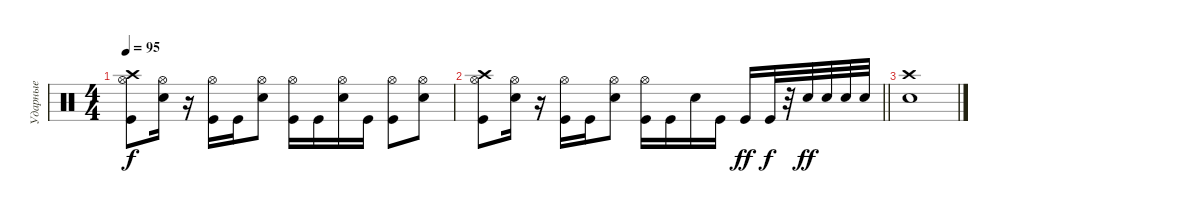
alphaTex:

\track ("Ударные" "Ударные") {instrument percussion}
\staff {score}
\articulation defaults
\ts (4 4)
\tempo 95
\clef neutral
\ks c
("Kick (hit)" "Hi-Hat (open)" "Crash high (hit)").8{dy f} ("Hi-Hat (open)" "Snare (hit) 2").16 r.16 ("Hi-Hat (open)" "Kick (hit)").16 "Kick (hit)".16 ("Hi-Hat (open)" "Snare (hit) 2").8 ("Hi-Hat (open)" "Kick (hit)").16 "Kick (hit)".16 ("Hi-Hat (open)" "Snare (hit) 2").16 "Kick (hit)".16 ("Hi-Hat (open)" "Kick (hit)").8 ("Hi-Hat (open)" "Snare (hit) 2").8 |
\barLineRight lightlight
("Kick (hit)" "Hi-Hat (open)" "Crash high (hit)").8 ("Hi-Hat (open)" "Snare (hit) 2").16 r.16 ("Hi-Hat (open)" "Kick (hit)").16 "Kick (hit)".16 ("Hi-Hat (open)" "Snare (hit) 2").8 ("Hi-Hat (open)" "Kick (hit)").16 "Kick (hit)".16 "Snare (hit) 2".16 "Kick (hit)".16 "Kick (hit)".16{dy ff} "Kick (hit)".32{dy f} r.32 "Snare (hit) 2".32{dy ff} "Snare (hit) 2".32 "Snare (hit) 2".32 "Snare (hit) 2".32 |
("Crash high (hit)" "Snare (hit) 2").1
